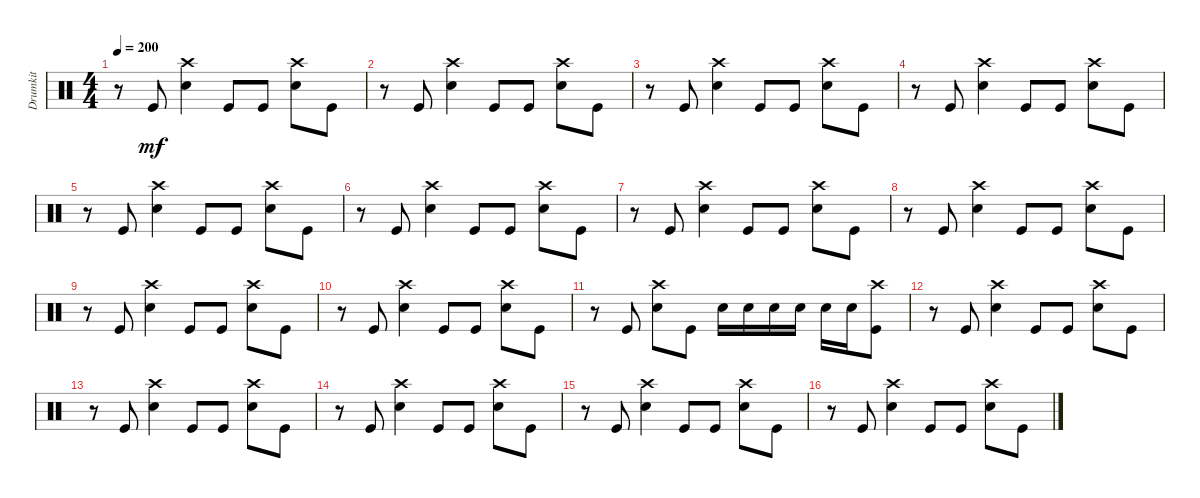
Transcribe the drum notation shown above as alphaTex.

\track ("Drumkit" "Drumkit") {instrument percussion}
\staff {score}
\articulation defaults
\ts (4 4)
\tempo 200
\clef neutral
\ks c
r.8{dy mf} "Kick (hit)".8 ("Snare (hit) 2" "Crash high (hit)").4 "Kick (hit)".8 "Kick (hit)".8 ("Snare (hit) 2" "Crash high (hit)").8 "Kick (hit)".8 |
r.8 "Kick (hit)".8 ("Snare (hit) 2" "Crash high (hit)").4 "Kick (hit)".8 "Kick (hit)".8 ("Snare (hit) 2" "Crash high (hit)").8 "Kick (hit)".8 |
r.8 "Kick (hit)".8 ("Snare (hit) 2" "Crash high (hit)").4 "Kick (hit)".8 "Kick (hit)".8 ("Snare (hit) 2" "Crash high (hit)").8 "Kick (hit)".8 |
r.8 "Kick (hit)".8 ("Snare (hit) 2" "Crash high (hit)").4 "Kick (hit)".8 "Kick (hit)".8 ("Snare (hit) 2" "Crash high (hit)").8 "Kick (hit)".8 |
r.8 "Kick (hit)".8 ("Snare (hit) 2" "Crash high (hit)").4 "Kick (hit)".8 "Kick (hit)".8 ("Snare (hit) 2" "Crash high (hit)").8 "Kick (hit)".8 |
r.8 "Kick (hit)".8 ("Snare (hit) 2" "Crash high (hit)").4 "Kick (hit)".8 "Kick (hit)".8 ("Snare (hit) 2" "Crash high (hit)").8 "Kick (hit)".8 |
r.8 "Kick (hit)".8 ("Snare (hit) 2" "Crash high (hit)").4 "Kick (hit)".8 "Kick (hit)".8 ("Snare (hit) 2" "Crash high (hit)").8 "Kick (hit)".8 |
r.8 "Kick (hit)".8 ("Snare (hit) 2" "Crash high (hit)").4 "Kick (hit)".8 "Kick (hit)".8 ("Snare (hit) 2" "Crash high (hit)").8 "Kick (hit)".8 |
r.8 "Kick (hit)".8 ("Snare (hit) 2" "Crash high (hit)").4 "Kick (hit)".8 "Kick (hit)".8 ("Snare (hit) 2" "Crash high (hit)").8 "Kick (hit)".8 |
r.8 "Kick (hit)".8 ("Snare (hit) 2" "Crash high (hit)").4 "Kick (hit)".8 "Kick (hit)".8 ("Snare (hit) 2" "Crash high (hit)").8 "Kick (hit)".8 |
r.8 "Kick (hit)".8 ("Snare (hit) 2" "Crash high (hit)").8 "Kick (hit)".8 "Snare (hit) 2".16 "Snare (hit) 2".16 "Snare (hit) 2".16 "Snare (hit) 2".16 "Snare (hit) 2".16 "Snare (hit) 2".16 ("Crash high (hit)" "Kick (hit)").8 |
r.8 "Kick (hit)".8 ("Snare (hit) 2" "Crash high (hit)").4 "Kick (hit)".8 "Kick (hit)".8 ("Snare (hit) 2" "Crash high (hit)").8 "Kick (hit)".8 |
r.8 "Kick (hit)".8 ("Snare (hit) 2" "Crash high (hit)").4 "Kick (hit)".8 "Kick (hit)".8 ("Snare (hit) 2" "Crash high (hit)").8 "Kick (hit)".8 |
r.8 "Kick (hit)".8 ("Snare (hit) 2" "Crash high (hit)").4 "Kick (hit)".8 "Kick (hit)".8 ("Snare (hit) 2" "Crash high (hit)").8 "Kick (hit)".8 |
r.8 "Kick (hit)".8 ("Snare (hit) 2" "Crash high (hit)").4 "Kick (hit)".8 "Kick (hit)".8 ("Snare (hit) 2" "Crash high (hit)").8 "Kick (hit)".8 |
r.8 "Kick (hit)".8 ("Snare (hit) 2" "Crash high (hit)").4 "Kick (hit)".8 "Kick (hit)".8 ("Snare (hit) 2" "Crash high (hit)").8 "Kick (hit)".8
